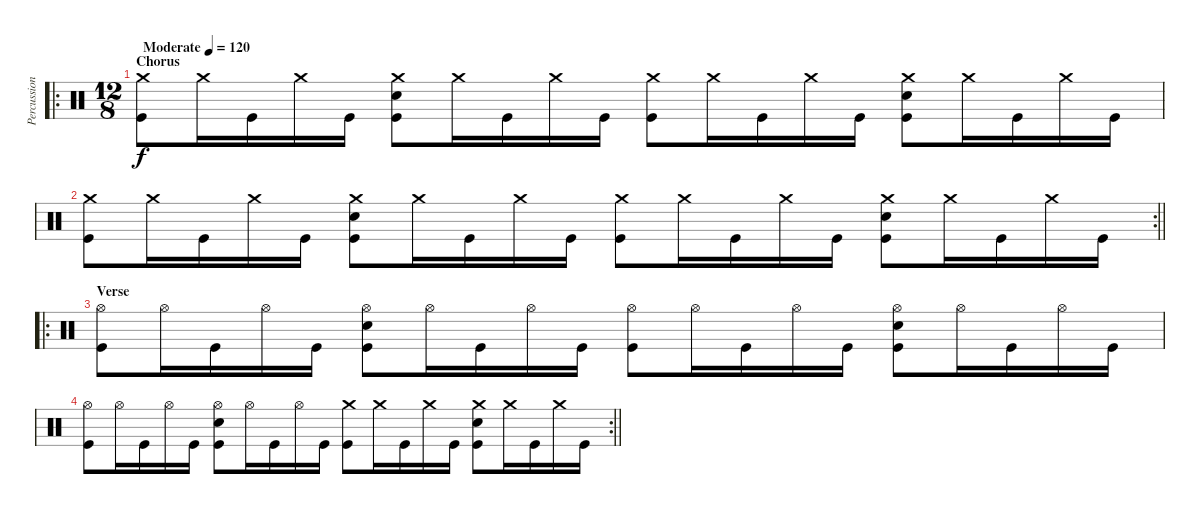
\track ("Percussion" "Percussion") {instrument percussion}
\staff {score}
\articulation defaults
\ro
\ts (12 8)
\section ("" "Chorus")
\tempo (120 "Moderate")
\clef neutral
\ks c
("Crash medium (hit)" "Kick (hit)").8{dy f} "Crash medium (hit)".16 "Kick (hit)".16 "Crash medium (hit)".16 "Kick (hit)".16 ("Crash medium (hit)" "Snare (hit) 2" "Kick (hit)").8 "Crash medium (hit)".16 "Kick (hit)".16 "Crash medium (hit)".16 "Kick (hit)".16 ("Crash medium (hit)" "Kick (hit)").8 "Crash medium (hit)".16 "Kick (hit)".16 "Crash medium (hit)".16 "Kick (hit)".16 ("Crash medium (hit)" "Snare (hit) 2" "Kick (hit)").8 "Crash medium (hit)".16 "Kick (hit)".16 "Crash medium (hit)".16 "Kick (hit)".16 |
\rc 2
\barLineRight lightlight
("Crash medium (hit)" "Kick (hit)").8 "Crash medium (hit)".16 "Kick (hit)".16 "Crash medium (hit)".16 "Kick (hit)".16 ("Crash medium (hit)" "Snare (hit) 2" "Kick (hit)").8 "Crash medium (hit)".16 "Kick (hit)".16 "Crash medium (hit)".16 "Kick (hit)".16 ("Crash medium (hit)" "Kick (hit)").8 "Crash medium (hit)".16 "Kick (hit)".16 "Crash medium (hit)".16 "Kick (hit)".16 ("Crash medium (hit)" "Snare (hit) 2" "Kick (hit)").8 "Crash medium (hit)".16 "Kick (hit)".16 "Crash medium (hit)".16 "Kick (hit)".16 |
\ro
\section ("" "Verse")
("Hi-Hat (open)" "Kick (hit)").8 "Hi-Hat (open)".16 "Kick (hit)".16 "Hi-Hat (open)".16 "Kick (hit)".16 ("Hi-Hat (open)" "Snare (hit) 2" "Kick (hit)").8 "Hi-Hat (open)".16 "Kick (hit)".16 "Hi-Hat (open)".16 "Kick (hit)".16 ("Hi-Hat (open)" "Kick (hit)").8 "Hi-Hat (open)".16 "Kick (hit)".16 "Hi-Hat (open)".16 "Kick (hit)".16 ("Hi-Hat (open)" "Snare (hit) 2" "Kick (hit)").8 "Hi-Hat (open)".16 "Kick (hit)".16 "Hi-Hat (open)".16 "Kick (hit)".16 |
\rc 2
\barLineRight lightlight
("Hi-Hat (open)" "Kick (hit)").8 "Hi-Hat (open)".16 "Kick (hit)".16 "Hi-Hat (open)".16 "Kick (hit)".16 ("Hi-Hat (open)" "Snare (hit) 2" "Kick (hit)").8 "Hi-Hat (open)".16 "Kick (hit)".16 "Hi-Hat (open)".16 "Kick (hit)".16 ("Crash medium (hit)" "Kick (hit)").8 "Crash medium (hit)".16 "Kick (hit)".16 "Crash medium (hit)".16 "Kick (hit)".16 ("Crash medium (hit)" "Snare (hit) 2" "Kick (hit)").8 "Crash medium (hit)".16 "Kick (hit)".16 "Crash medium (hit)".16 "Kick (hit)".16
